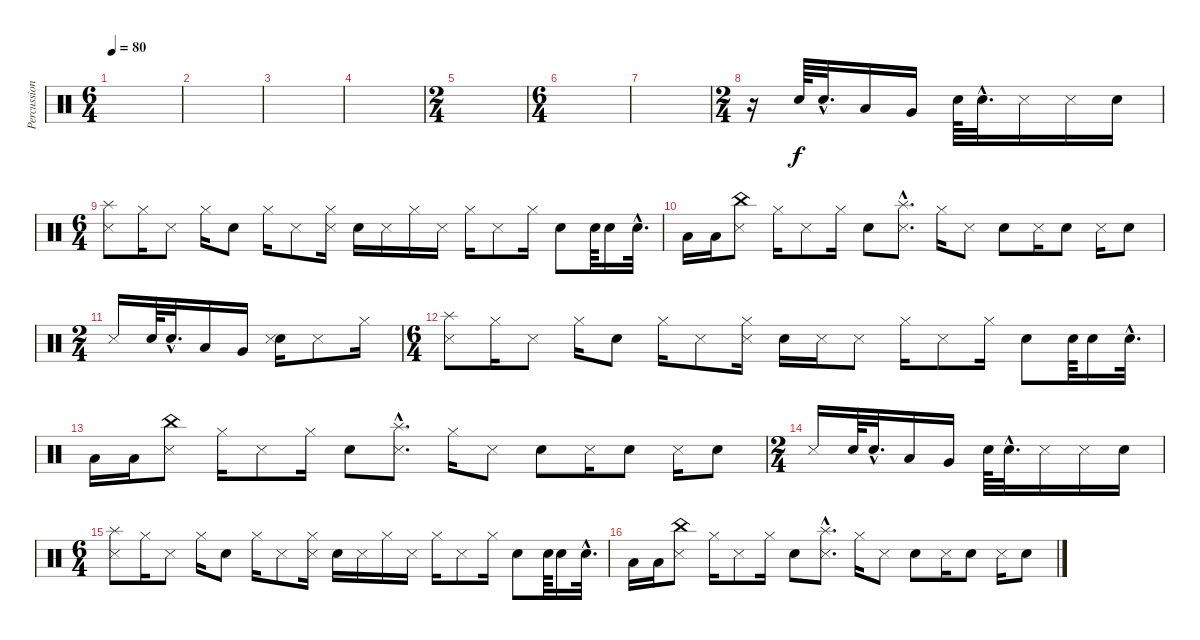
\track ("Percussions" "Percussion") {instrument percussion}
\staff {score}
\articulation defaults
\ts (6 4)
\tempo 80
\clef neutral
\ks c
|
|
|
|
\ts (2 4)
|
\ts (6 4)
|
|
\ts (2 4)
r.16 "Snare (hit) 2".64 "Snare (hit) 2"{hac}.32{d} "Low Floor Tom (hit)".16 "Very Low Tom (hit)".16 "Snare (hit) 2".64 "Snare (hit) 2"{hac}.32{d} "Metronome (hit)".16 "Metronome (hit)".16 "Snare (hit) 2".16 |
\ts (6 4)
("Splash (hit)" "Metronome (hit)").8 "Hi-Hat (closed)".16 "Metronome (hit)".8 "Hi-Hat (closed)".16 "Snare (hit) 2".8 "Hi-Hat (closed)".16 "Metronome (hit)".8 ("Hi-Hat (closed)" "Metronome (hit)").16 "Snare (hit) 2".16 "Metronome (hit)".16 "Hi-Hat (closed)".16 "Metronome (hit)".16 "Hi-Hat (closed)".16 "Metronome (hit)".8 "Hi-Hat (closed)".16 "Snare (hit) 2".8 "Snare (hit) 2".64 "Snare (hit) 2".16 "Snare (hit) 2"{hac}.32{d} |
"Low Floor Tom (hit)".16 "Low Floor Tom (hit)".16 ("China (hit)" "Metronome (hit)").8 "Hi-Hat (closed)".16 "Metronome (hit)".8 "Hi-Hat (closed)".16 "Snare (hit) 2".8 ("Splash (hit)"{hac} "Metronome (hit)"{hac}).8{d} "Hi-Hat (closed)".16 "Metronome (hit)".8 "Snare (hit) 2".8 "Metronome (hit)".16 "Snare (hit) 2".8 "Metronome (hit)".16 "Snare (hit) 2".8 |
\ts (2 4)
"Metronome (hit)".16 "Snare (hit) 2".64 "Snare (hit) 2"{hac}.32{d} "Low Floor Tom (hit)".16 "Very Low Tom (hit)".16 ("Snare (hit) 2" "Metronome (hit)").16 "Metronome (hit)".8 "Hi-Hat (closed)".16 |
\ts (6 4)
("Splash (hit)" "Metronome (hit)").8 "Hi-Hat (closed)".16 "Metronome (hit)".8 "Hi-Hat (closed)".16 "Snare (hit) 2".8 "Hi-Hat (closed)".16 "Metronome (hit)".8 ("Hi-Hat (closed)" "Metronome (hit)").16 "Snare (hit) 2".16 "Metronome (hit)".16 "Metronome (hit)".8 "Hi-Hat (closed)".16 "Metronome (hit)".8 "Hi-Hat (closed)".16 "Snare (hit) 2".8 "Snare (hit) 2".64 "Snare (hit) 2".16 "Snare (hit) 2"{hac}.32{d} |
"Low Floor Tom (hit)".16 "Low Floor Tom (hit)".16 ("China (hit)" "Metronome (hit)").8 "Hi-Hat (closed)".16 "Metronome (hit)".8 "Hi-Hat (closed)".16 "Snare (hit) 2".8 ("Splash (hit)"{hac} "Metronome (hit)"{hac}).8{d} "Hi-Hat (closed)".16 "Metronome (hit)".8 "Snare (hit) 2".8 "Metronome (hit)".16 "Snare (hit) 2".8 "Metronome (hit)".16 "Snare (hit) 2".8 |
\ts (2 4)
"Metronome (hit)".16 "Snare (hit) 2".64 "Snare (hit) 2"{hac}.32{d} "Low Floor Tom (hit)".16 "Very Low Tom (hit)".16 "Snare (hit) 2".64 "Snare (hit) 2"{hac}.32{d} "Metronome (hit)".16 "Metronome (hit)".16 "Snare (hit) 2".16 |
\ts (6 4)
("Splash (hit)" "Metronome (hit)").8 "Hi-Hat (closed)".16 "Metronome (hit)".8 "Hi-Hat (closed)".16 "Snare (hit) 2".8 "Hi-Hat (closed)".16 "Metronome (hit)".8 ("Hi-Hat (closed)" "Metronome (hit)").16 "Snare (hit) 2".16 "Metronome (hit)".16 "Hi-Hat (closed)".16 "Metronome (hit)".16 "Hi-Hat (closed)".16 "Metronome (hit)".8 "Hi-Hat (closed)".16 "Snare (hit) 2".8 "Snare (hit) 2".64 "Snare (hit) 2".16 "Snare (hit) 2"{hac}.32{d} |
"Low Floor Tom (hit)".16 "Low Floor Tom (hit)".16 ("China (hit)" "Metronome (hit)").8 "Hi-Hat (closed)".16 "Metronome (hit)".8 "Hi-Hat (closed)".16 "Snare (hit) 2".8 ("Splash (hit)"{hac} "Metronome (hit)"{hac}).8{d} "Hi-Hat (closed)".16 "Metronome (hit)".8 "Snare (hit) 2".8 "Metronome (hit)".16 "Snare (hit) 2".8 "Metronome (hit)".16 "Snare (hit) 2".8
